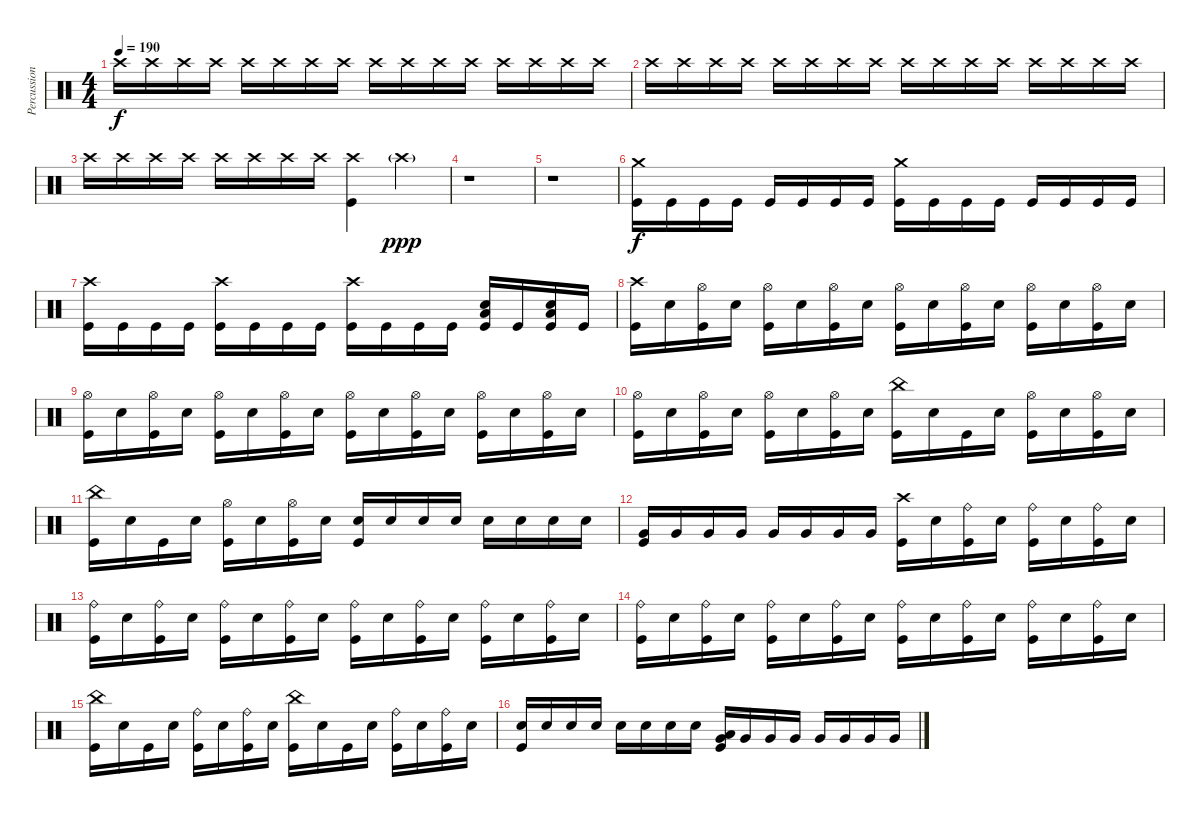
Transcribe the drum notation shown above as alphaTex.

\track ("Percussion" "Percussion") {instrument percussion}
\staff {score}
\articulation defaults
\ts (4 4)
\tempo 190
\clef neutral
\ks c "Crash high (hit)".16{dy f volume 9} "Crash high (hit)".16 "Crash high (hit)".16 "Crash high (hit)".16 "Crash high (hit)".16 "Crash high (hit)".16 "Crash high (hit)".16 "Crash high (hit)".16 "Crash high (hit)".16 "Crash high (hit)".16 "Crash high (hit)".16 "Crash high (hit)".16 "Crash high (hit)".16 "Crash high (hit)".16 "Crash high (hit)".16 "Crash high (hit)".16
|
"Crash high (hit)".16 "Crash high (hit)".16 "Crash high (hit)".16 "Crash high (hit)".16 "Crash high (hit)".16 "Crash high (hit)".16 "Crash high (hit)".16 "Crash high (hit)".16 "Crash high (hit)".16 "Crash high (hit)".16 "Crash high (hit)".16 "Crash high (hit)".16 "Crash high (hit)".16 "Crash high (hit)".16 "Crash high (hit)".16 "Crash high (hit)".16 |
"Crash high (hit)".16 "Crash high (hit)".16 "Crash high (hit)".16 "Crash high (hit)".16 "Crash high (hit)".16 "Crash high (hit)".16 "Crash high (hit)".16 "Crash high (hit)".16 ("Crash high (hit)" "Kick (hit)").4{volume 13} "Crash high (hit)"{g}.4{dy ppp} |
r.1 |
r.1 |
("Crash medium (hit)" "Kick (hit)").16{dy f} "Kick (hit)".16 "Kick (hit)".16 "Kick (hit)".16 "Kick (hit)".16 "Kick (hit)".16 "Kick (hit)".16 "Kick (hit)".16 ("Crash medium (hit)" "Kick (hit)").16 "Kick (hit)".16 "Kick (hit)".16 "Kick (hit)".16 "Kick (hit)".16 "Kick (hit)".16 "Kick (hit)".16 "Kick (hit)".16 |
("Crash high (hit)" "Kick (hit)").16 "Kick (hit)".16 "Kick (hit)".16 "Kick (hit)".16 ("Crash high (hit)" "Kick (hit)").16 "Kick (hit)".16 "Kick (hit)".16 "Kick (hit)".16 ("Crash high (hit)" "Kick (hit)").16 "Kick (hit)".16 "Kick (hit)".16 "Kick (hit)".16 ("Low Floor Tom (hit)" "Snare (hit) 2" "Kick (hit)").16 "Kick (hit)".16 ("Low Floor Tom (hit)" "Snare (hit) 2" "Kick (hit)").16 "Kick (hit)".16 |
("Crash high (hit)" "Kick (hit)").16 "Snare (hit) 2".16 ("Hi-Hat (open)" "Kick (hit)").16 "Snare (hit) 2".16 ("Hi-Hat (open)" "Kick (hit)").16 "Snare (hit) 2".16 ("Hi-Hat (open)" "Kick (hit)").16 "Snare (hit) 2".16 ("Hi-Hat (open)" "Kick (hit)").16 "Snare (hit) 2".16 ("Hi-Hat (open)" "Kick (hit)").16 "Snare (hit) 2".16 ("Hi-Hat (open)" "Kick (hit)").16 "Snare (hit) 2".16 ("Hi-Hat (open)" "Kick (hit)").16 "Snare (hit) 2".16 |
("Hi-Hat (open)" "Kick (hit)").16 "Snare (hit) 2".16 ("Hi-Hat (open)" "Kick (hit)").16 "Snare (hit) 2".16 ("Hi-Hat (open)" "Kick (hit)").16 "Snare (hit) 2".16 ("Hi-Hat (open)" "Kick (hit)").16 "Snare (hit) 2".16 ("Hi-Hat (open)" "Kick (hit)").16 "Snare (hit) 2".16 ("Hi-Hat (open)" "Kick (hit)").16 "Snare (hit) 2".16 ("Hi-Hat (open)" "Kick (hit)").16 "Snare (hit) 2".16 ("Hi-Hat (open)" "Kick (hit)").16 "Snare (hit) 2".16 |
("Hi-Hat (open)" "Kick (hit)").16 "Snare (hit) 2".16 ("Hi-Hat (open)" "Kick (hit)").16 "Snare (hit) 2".16 ("Hi-Hat (open)" "Kick (hit)").16 "Snare (hit) 2".16 ("Hi-Hat (open)" "Kick (hit)").16 "Snare (hit) 2".16 ("China (hit)" "Kick (hit)").16 "Snare (hit) 2".16 "Kick (hit)".16 "Snare (hit) 2".16 ("Hi-Hat (open)" "Kick (hit)").16 "Snare (hit) 2".16 ("Hi-Hat (open)" "Kick (hit)").16 "Snare (hit) 2".16 |
("China (hit)" "Kick (hit)").16 "Snare (hit) 2".16 "Kick (hit)".16 "Snare (hit) 2".16 ("Hi-Hat (open)" "Kick (hit)").16 "Snare (hit) 2".16 ("Hi-Hat (open)" "Kick (hit)").16 "Snare (hit) 2".16 ("Snare (hit) 2" "Kick (hit)").16 "Snare (hit) 2".16 "Snare (hit) 2".16 "Snare (hit) 2".16 "Snare (hit) 2".16 "Snare (hit) 2".16 "Snare (hit) 2".16 "Snare (hit) 2".16 |
("Very Low Tom (hit)" "Kick (hit)").16 "Very Low Tom (hit)".16 "Very Low Tom (hit)".16 "Very Low Tom (hit)".16 "Very Low Tom (hit)".16 "Very Low Tom (hit)".16 "Very Low Tom (hit)".16 "Very Low Tom (hit)".16 ("Crash high (hit)" "Kick (hit)").16 "Snare (hit) 2".16 ("Ride (bell)" "Kick (hit)").16 "Snare (hit) 2".16 ("Ride (bell)" "Kick (hit)").16 "Snare (hit) 2".16 ("Ride (bell)" "Kick (hit)").16 "Snare (hit) 2".16 |
("Ride (bell)" "Kick (hit)").16 "Snare (hit) 2".16 ("Ride (bell)" "Kick (hit)").16 "Snare (hit) 2".16 ("Ride (bell)" "Kick (hit)").16 "Snare (hit) 2".16 ("Ride (bell)" "Kick (hit)").16 "Snare (hit) 2".16 ("Ride (bell)" "Kick (hit)").16 "Snare (hit) 2".16 ("Ride (bell)" "Kick (hit)").16 "Snare (hit) 2".16 ("Ride (bell)" "Kick (hit)").16 "Snare (hit) 2".16 ("Ride (bell)" "Kick (hit)").16 "Snare (hit) 2".16 |
("Ride (bell)" "Kick (hit)").16 "Snare (hit) 2".16 ("Ride (bell)" "Kick (hit)").16 "Snare (hit) 2".16 ("Ride (bell)" "Kick (hit)").16 "Snare (hit) 2".16 ("Ride (bell)" "Kick (hit)").16 "Snare (hit) 2".16 ("Ride (bell)" "Kick (hit)").16 "Snare (hit) 2".16 ("Ride (bell)" "Kick (hit)").16 "Snare (hit) 2".16 ("Ride (bell)" "Kick (hit)").16 "Snare (hit) 2".16 ("Ride (bell)" "Kick (hit)").16 "Snare (hit) 2".16 |
("China (hit)" "Kick (hit)").16 "Snare (hit) 2".16 "Kick (hit)".16 "Snare (hit) 2".16 ("Ride (bell)" "Kick (hit)").16 "Snare (hit) 2".16 ("Ride (bell)" "Kick (hit)").16 "Snare (hit) 2".16 ("China (hit)" "Kick (hit)").16 "Snare (hit) 2".16 "Kick (hit)".16 "Snare (hit) 2".16 ("Ride (bell)" "Kick (hit)").16 "Snare (hit) 2".16 ("Ride (bell)" "Kick (hit)").16 "Snare (hit) 2".16 |
("Snare (hit) 2" "Kick (hit)").16 "Snare (hit) 2".16 "Snare (hit) 2".16 "Snare (hit) 2".16 "Snare (hit) 2".16 "Snare (hit) 2".16 "Snare (hit) 2".16 "Snare (hit) 2".16 ("Low Floor Tom (hit)" "Very Low Tom (hit)" "Kick (hit)").16 "Very Low Tom (hit)".16 "Very Low Tom (hit)".16 "Very Low Tom (hit)".16 "Very Low Tom (hit)".16 "Very Low Tom (hit)".16 "Very Low Tom (hit)".16 "Very Low Tom (hit)".16
